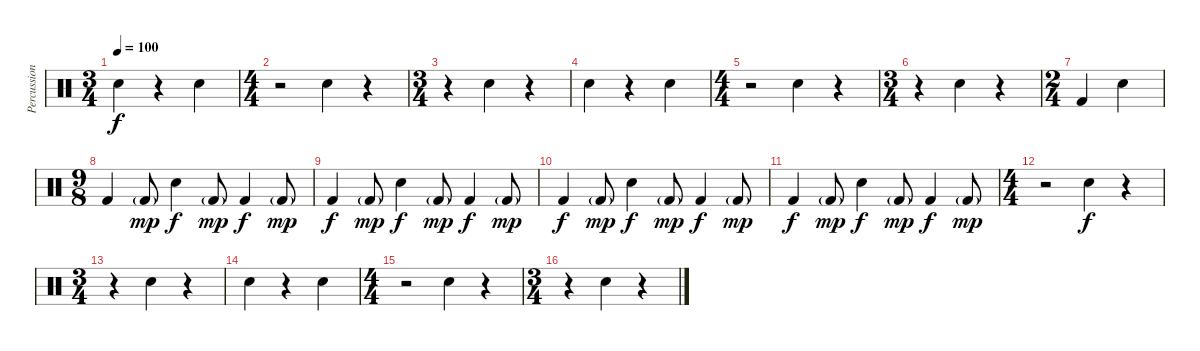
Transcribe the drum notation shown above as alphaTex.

\track ("Percussion" "Percussion") {mute instrument percussion}
\staff {score}
\articulation defaults
\ts (3 4)
\tempo 100
\clef neutral
\ks c "Electric Snare (hit)".4{dy f}
r.4 "Electric Snare (hit)".4 |
\ts (4 4)
r.2 "Electric Snare (hit)".4 r.4 |
\ts (3 4)
r.4 "Electric Snare (hit)".4 r.4 |
"Electric Snare (hit)".4 r.4 "Electric Snare (hit)".4 |
\ts (4 4)
r.2 "Electric Snare (hit)".4 r.4 |
\ts (3 4)
r.4 "Electric Snare (hit)".4 r.4 |
\ts (2 4)
"Kick (hit) 2".4 "Electric Snare (hit)".4 |
\ts (9 8)
"Kick (hit) 2".4 "Kick (hit) 2"{g}.8{dy mp} "Electric Snare (hit)".4{dy f} "Kick (hit) 2"{g}.8{dy mp} "Kick (hit) 2".4{dy f} "Kick (hit) 2"{g}.8{dy mp} |
"Kick (hit) 2".4{dy f} "Kick (hit) 2"{g}.8{dy mp} "Electric Snare (hit)".4{dy f} "Kick (hit) 2"{g}.8{dy mp} "Kick (hit) 2".4{dy f} "Kick (hit) 2"{g}.8{dy mp} |
"Kick (hit) 2".4{dy f} "Kick (hit) 2"{g}.8{dy mp} "Electric Snare (hit)".4{dy f} "Kick (hit) 2"{g}.8{dy mp} "Kick (hit) 2".4{dy f} "Kick (hit) 2"{g}.8{dy mp} |
"Kick (hit) 2".4{dy f} "Kick (hit) 2"{g}.8{dy mp} "Electric Snare (hit)".4{dy f} "Kick (hit) 2"{g}.8{dy mp} "Kick (hit) 2".4{dy f} "Kick (hit) 2"{g}.8{dy mp} |
\ts (4 4)
r.2 "Electric Snare (hit)".4{dy f} r.4 |
\ts (3 4)
r.4 "Electric Snare (hit)".4 r.4 |
"Electric Snare (hit)".4 r.4 "Electric Snare (hit)".4 |
\ts (4 4)
r.2 "Electric Snare (hit)".4 r.4 |
\ts (3 4)
r.4 "Electric Snare (hit)".4 r.4
